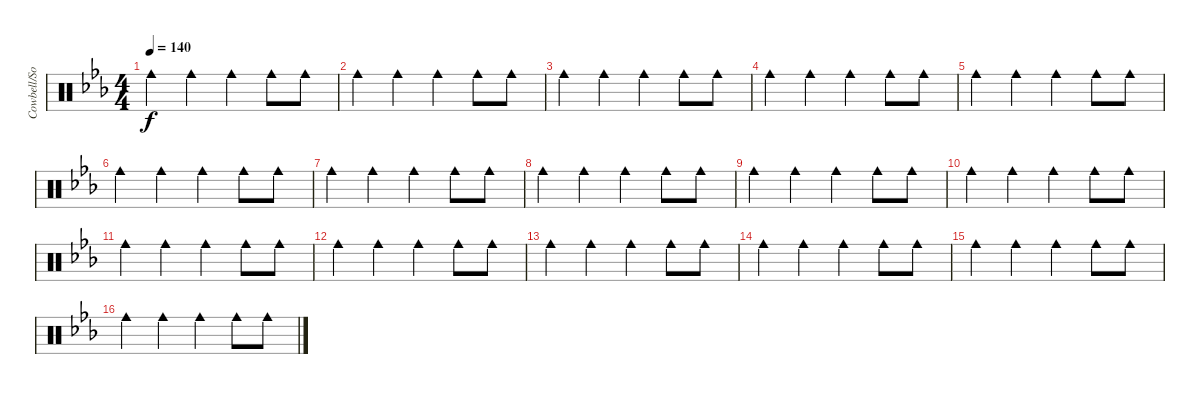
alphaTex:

\track ("Cowbell/Sound FX (Leah)" "Cowbell/So") {instrument percussion}
\staff {score}
\articulation defaults
\ts (4 4)
\tempo 140
\clef neutral
\ks cminor "Cowbell medium (hit)".4{dy f} "Cowbell medium (hit)".4 "Cowbell medium (hit)".4 "Cowbell medium (hit)".8 "Cowbell medium (hit)".8
|
"Cowbell medium (hit)".4 "Cowbell medium (hit)".4 "Cowbell medium (hit)".4 "Cowbell medium (hit)".8 "Cowbell medium (hit)".8 |
"Cowbell medium (hit)".4 "Cowbell medium (hit)".4 "Cowbell medium (hit)".4 "Cowbell medium (hit)".8 "Cowbell medium (hit)".8 |
"Cowbell medium (hit)".4 "Cowbell medium (hit)".4 "Cowbell medium (hit)".4 "Cowbell medium (hit)".8 "Cowbell medium (hit)".8 |
"Cowbell medium (hit)".4 "Cowbell medium (hit)".4 "Cowbell medium (hit)".4 "Cowbell medium (hit)".8 "Cowbell medium (hit)".8 |
"Cowbell medium (hit)".4 "Cowbell medium (hit)".4 "Cowbell medium (hit)".4 "Cowbell medium (hit)".8 "Cowbell medium (hit)".8 |
"Cowbell medium (hit)".4 "Cowbell medium (hit)".4 "Cowbell medium (hit)".4 "Cowbell medium (hit)".8 "Cowbell medium (hit)".8 |
"Cowbell medium (hit)".4 "Cowbell medium (hit)".4 "Cowbell medium (hit)".4 "Cowbell medium (hit)".8 "Cowbell medium (hit)".8 |
"Cowbell medium (hit)".4 "Cowbell medium (hit)".4 "Cowbell medium (hit)".4 "Cowbell medium (hit)".8 "Cowbell medium (hit)".8 |
"Cowbell medium (hit)".4 "Cowbell medium (hit)".4 "Cowbell medium (hit)".4 "Cowbell medium (hit)".8 "Cowbell medium (hit)".8 |
"Cowbell medium (hit)".4 "Cowbell medium (hit)".4 "Cowbell medium (hit)".4 "Cowbell medium (hit)".8 "Cowbell medium (hit)".8 |
"Cowbell medium (hit)".4 "Cowbell medium (hit)".4 "Cowbell medium (hit)".4 "Cowbell medium (hit)".8 "Cowbell medium (hit)".8 |
"Cowbell medium (hit)".4 "Cowbell medium (hit)".4 "Cowbell medium (hit)".4 "Cowbell medium (hit)".8 "Cowbell medium (hit)".8 |
"Cowbell medium (hit)".4 "Cowbell medium (hit)".4 "Cowbell medium (hit)".4 "Cowbell medium (hit)".8 "Cowbell medium (hit)".8 |
"Cowbell medium (hit)".4 "Cowbell medium (hit)".4 "Cowbell medium (hit)".4 "Cowbell medium (hit)".8 "Cowbell medium (hit)".8 |
"Cowbell medium (hit)".4 "Cowbell medium (hit)".4 "Cowbell medium (hit)".4 "Cowbell medium (hit)".8 "Cowbell medium (hit)".8
